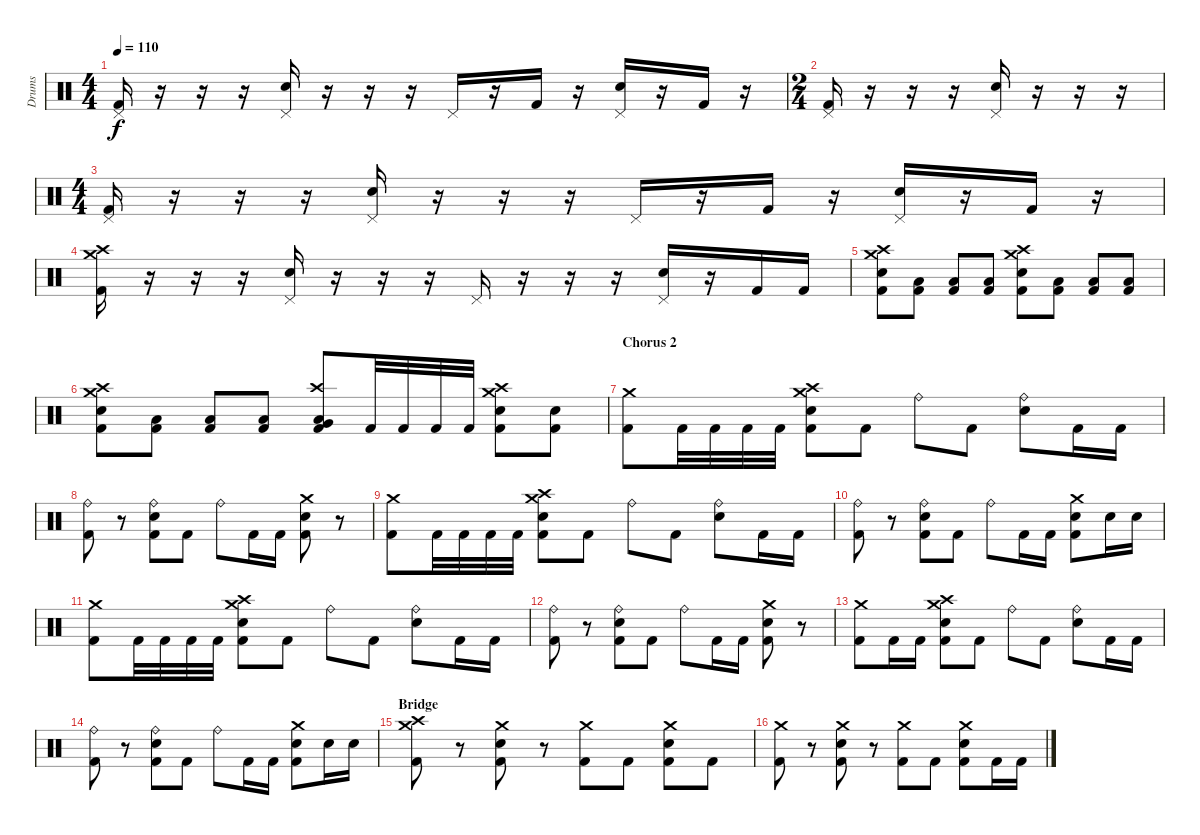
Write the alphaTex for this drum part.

\track ("Drums" "Drums") {instrument percussion}
\staff {score}
\articulation defaults
\ts (4 4)
\tempo 110
\clef neutral
\ks c
("Pedal Hi-Hat (hit)" "Kick (hit) 2").16{dy f} r.16 r.16 r.16 ("Pedal Hi-Hat (hit)" "Electric Snare (hit)").16 r.16 r.16 r.16 "Pedal Hi-Hat (hit)".16 r.16 "Kick (hit) 2".16 r.16 ("Pedal Hi-Hat (hit)" "Electric Snare (hit)").16 r.16 "Kick (hit) 2".16 r.16 |
\ts (2 4)
("Pedal Hi-Hat (hit)" "Kick (hit) 2").16 r.16 r.16 r.16 ("Pedal Hi-Hat (hit)" "Electric Snare (hit)").16 r.16 r.16 r.16 |
\ts (4 4)
("Pedal Hi-Hat (hit)" "Kick (hit) 2").16 r.16 r.16 r.16 ("Pedal Hi-Hat (hit)" "Electric Snare (hit)").16 r.16 r.16 r.16 "Pedal Hi-Hat (hit)".16 r.16 "Kick (hit) 2".16 r.16 ("Pedal Hi-Hat (hit)" "Electric Snare (hit)").16 r.16 "Kick (hit) 2".16 r.16 |
("Crash high (hit)" "Crash medium (hit)" "Kick (hit) 2").16 r.16 r.16 r.16 ("Pedal Hi-Hat (hit)" "Electric Snare (hit)").16 r.16 r.16 r.16 "Pedal Hi-Hat (hit)".16 r.16 r.16 r.16 ("Pedal Hi-Hat (hit)" "Electric Snare (hit)").16 r.16 "Kick (hit) 2".16 "Kick (hit) 2".16 |
("Crash high (hit)" "Crash medium (hit)" "Electric Snare (hit)" "Kick (hit) 2").8 ("Low Floor Tom (hit)" "Kick (hit) 2").8 ("Low Floor Tom (hit)" "Kick (hit) 2").8 ("Low Floor Tom (hit)" "Kick (hit) 2").8 ("Crash high (hit)" "Crash medium (hit)" "Electric Snare (hit)" "Kick (hit) 2").8 ("Low Floor Tom (hit)" "Kick (hit) 2").8 ("Low Floor Tom (hit)" "Kick (hit) 2").8 ("Low Floor Tom (hit)" "Kick (hit) 2").8 |
("Crash high (hit)" "Crash medium (hit)" "Electric Snare (hit)" "Kick (hit) 2").8 ("Low Floor Tom (hit)" "Kick (hit) 2").8 ("Low Floor Tom (hit)" "Kick (hit) 2").8 ("Low Floor Tom (hit)" "Kick (hit) 2").8 ("Crash high (hit)" "Very Low Tom (hit)" "Low Floor Tom (hit)" "Kick (hit) 2").8 "Kick (hit) 2".32 "Kick (hit) 2".32 "Kick (hit) 2".32 "Kick (hit) 2".32 ("Crash high (hit)" "Crash medium (hit)" "Electric Snare (hit)" "Kick (hit) 2").8 ("Electric Snare (hit)" "Kick (hit) 2").8 |
\section ("" "Chorus 2")
("Crash medium (hit)" "Kick (hit) 2").8 "Kick (hit) 2".32 "Kick (hit) 2".32 "Kick (hit) 2".32 "Kick (hit) 2".32 ("Crash high (hit)" "Crash medium (hit)" "Electric Snare (hit)" "Kick (hit) 2").8 "Kick (hit) 2".8 "Ride (bell)".8 "Kick (hit) 2".8 ("Ride (bell)" "Electric Snare (hit)").8 "Kick (hit) 2".16 "Kick (hit) 2".16 |
("Ride (bell)" "Kick (hit) 2").8 r.8 ("Ride (bell)" "Electric Snare (hit)" "Kick (hit) 2").8 "Kick (hit) 2".8 "Ride (bell)".8 "Kick (hit) 2".16 "Kick (hit) 2".16 ("Crash medium (hit)" "Electric Snare (hit)" "Kick (hit) 2").8 r.8 |
("Crash medium (hit)" "Kick (hit) 2").8 "Kick (hit) 2".32 "Kick (hit) 2".32 "Kick (hit) 2".32 "Kick (hit) 2".32 ("Crash high (hit)" "Crash medium (hit)" "Electric Snare (hit)" "Kick (hit) 2").8 "Kick (hit) 2".8 "Ride (bell)".8 "Kick (hit) 2".8 ("Ride (bell)" "Electric Snare (hit)").8 "Kick (hit) 2".16 "Kick (hit) 2".16 |
("Ride (bell)" "Kick (hit) 2").8 r.8 ("Ride (bell)" "Electric Snare (hit)" "Kick (hit) 2").8 "Kick (hit) 2".8 "Ride (bell)".8 "Kick (hit) 2".16 "Kick (hit) 2".16 ("Crash medium (hit)" "Electric Snare (hit)" "Kick (hit) 2").8 "Electric Snare (hit)".16 "Electric Snare (hit)".16 |
("Crash medium (hit)" "Kick (hit) 2").8 "Kick (hit) 2".32 "Kick (hit) 2".32 "Kick (hit) 2".32 "Kick (hit) 2".32 ("Crash high (hit)" "Crash medium (hit)" "Electric Snare (hit)" "Kick (hit) 2").8 "Kick (hit) 2".8 "Ride (bell)".8 "Kick (hit) 2".8 ("Ride (bell)" "Electric Snare (hit)").8 "Kick (hit) 2".16 "Kick (hit) 2".16 |
("Ride (bell)" "Kick (hit) 2").8 r.8 ("Ride (bell)" "Electric Snare (hit)" "Kick (hit) 2").8 "Kick (hit) 2".8 "Ride (bell)".8 "Kick (hit) 2".16 "Kick (hit) 2".16 ("Crash medium (hit)" "Electric Snare (hit)" "Kick (hit) 2").8 r.8 |
("Crash medium (hit)" "Kick (hit) 2").8 "Kick (hit) 2".16 "Kick (hit) 2".16 ("Crash high (hit)" "Crash medium (hit)" "Electric Snare (hit)" "Kick (hit) 2").8 "Kick (hit) 2".8 "Ride (bell)".8 "Kick (hit) 2".8 ("Ride (bell)" "Electric Snare (hit)").8 "Kick (hit) 2".16 "Kick (hit) 2".16 |
("Ride (bell)" "Kick (hit) 2").8 r.8 ("Ride (bell)" "Electric Snare (hit)" "Kick (hit) 2").8 "Kick (hit) 2".8 "Ride (bell)".8 "Kick (hit) 2".16 "Kick (hit) 2".16 ("Crash medium (hit)" "Electric Snare (hit)" "Kick (hit) 2").8 "Electric Snare (hit)".16 "Electric Snare (hit)".16 |
\section ("" "Bridge")
("Crash high (hit)" "Crash medium (hit)" "Kick (hit) 2").8 r.8 ("Crash medium (hit)" "Electric Snare (hit)" "Kick (hit) 2").8 r.8 ("Crash medium (hit)" "Kick (hit) 2").8 "Kick (hit) 2".8 ("Crash medium (hit)" "Electric Snare (hit)" "Kick (hit) 2").8 "Kick (hit) 2".8 |
("Crash medium (hit)" "Kick (hit) 2").8 r.8 ("Crash medium (hit)" "Electric Snare (hit)" "Kick (hit) 2").8 r.8 ("Crash medium (hit)" "Kick (hit) 2").8 "Kick (hit) 2".8 ("Crash medium (hit)" "Electric Snare (hit)" "Kick (hit) 2").8 "Kick (hit) 2".16 "Kick (hit) 2".16
